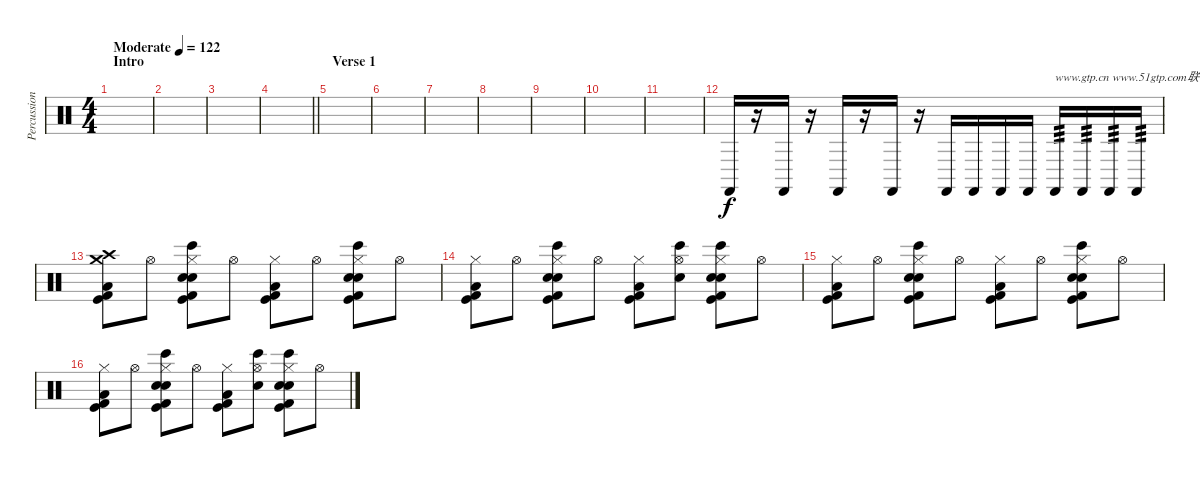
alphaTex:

\track ("Percussion" "Percussion") {instrument percussion}
\staff {score}
\articulation defaults
\ts (4 4)
\section ("" "Intro")
\tempo (122 "Moderate")
\clef neutral
\ks c
|
|
|
\barLineRight lightlight
|
\section ("" "Verse 1")
|
|
|
|
|
|
|
"Castanets (hit)".16{balance 0} r.16 "Castanets (hit)".16{balance 16} r.16 "Castanets (hit)".16{balance 0} r.16 "Castanets (hit)".16{balance 16} r.16 "Castanets (hit)".16{balance 0} "Castanets (hit)".16{balance 16} "Castanets (hit)".16{balance 0} "Castanets (hit)".16{balance 16} "Castanets (hit)".16{txt "www.gtp.cn www.51gtp.com联合为您提供优秀的GTP!" tp 3 balance 0} "Castanets (hit)".16{tp 3 balance 16} "Castanets (hit)".16{tp 3 balance 0} "Castanets (hit)".16{tp 3 balance 16} |
("Crash medium (hit)" "Crash high (hit)" "Low Floor Tom (hit)" "Kick (hit)" "Kick (hit) 2").8{balance 8} "Hi-Hat (open)".8 ("Hand Clap (hit)" "Bongo High (hit)" "Hi-Hat (closed)" "Electric Snare (hit)" "Kick (hit)" "Kick (hit) 2").8 "Hi-Hat (open)".8 ("Hi-Hat (closed)" "Low Floor Tom (hit)" "Kick (hit)" "Kick (hit) 2").8 "Hi-Hat (open)".8 ("Hand Clap (hit)" "Bongo High (hit)" "Hi-Hat (closed)" "Electric Snare (hit)" "Kick (hit)" "Kick (hit) 2").8 "Hi-Hat (open)".8 |
("Hi-Hat (closed)" "Low Floor Tom (hit)" "Kick (hit)" "Kick (hit) 2").8 "Hi-Hat (open)".8 ("Hand Clap (hit)" "Bongo High (hit)" "Hi-Hat (closed)" "Electric Snare (hit)" "Kick (hit)" "Kick (hit) 2").8 "Hi-Hat (open)".8 ("Hi-Hat (closed)" "Low Floor Tom (hit)" "Kick (hit)" "Kick (hit) 2").8 ("Hand Clap (hit)" "Bongo High (hit)" "Hi-Hat (open)").8 ("Hand Clap (hit)" "Bongo High (hit)" "Hi-Hat (closed)" "Electric Snare (hit)" "Kick (hit)" "Kick (hit) 2").8 "Hi-Hat (open)".8 |
("Hi-Hat (closed)" "Low Floor Tom (hit)" "Kick (hit)" "Kick (hit) 2").8 "Hi-Hat (open)".8 ("Hand Clap (hit)" "Bongo High (hit)" "Hi-Hat (closed)" "Electric Snare (hit)" "Kick (hit)" "Kick (hit) 2").8 "Hi-Hat (open)".8 ("Hi-Hat (closed)" "Low Floor Tom (hit)" "Kick (hit)" "Kick (hit) 2").8 "Hi-Hat (open)".8 ("Hand Clap (hit)" "Bongo High (hit)" "Hi-Hat (closed)" "Electric Snare (hit)" "Kick (hit)" "Kick (hit) 2").8 "Hi-Hat (open)".8 |
("Hi-Hat (closed)" "Low Floor Tom (hit)" "Kick (hit)" "Kick (hit) 2").8 "Hi-Hat (open)".8 ("Hand Clap (hit)" "Bongo High (hit)" "Hi-Hat (closed)" "Electric Snare (hit)" "Kick (hit)" "Kick (hit) 2").8 "Hi-Hat (open)".8 ("Hi-Hat (closed)" "Low Floor Tom (hit)" "Kick (hit)" "Kick (hit) 2").8 ("Hand Clap (hit)" "Bongo High (hit)" "Hi-Hat (open)").8 ("Hand Clap (hit)" "Bongo High (hit)" "Hi-Hat (closed)" "Electric Snare (hit)" "Kick (hit)" "Kick (hit) 2").8 "Hi-Hat (open)".8
